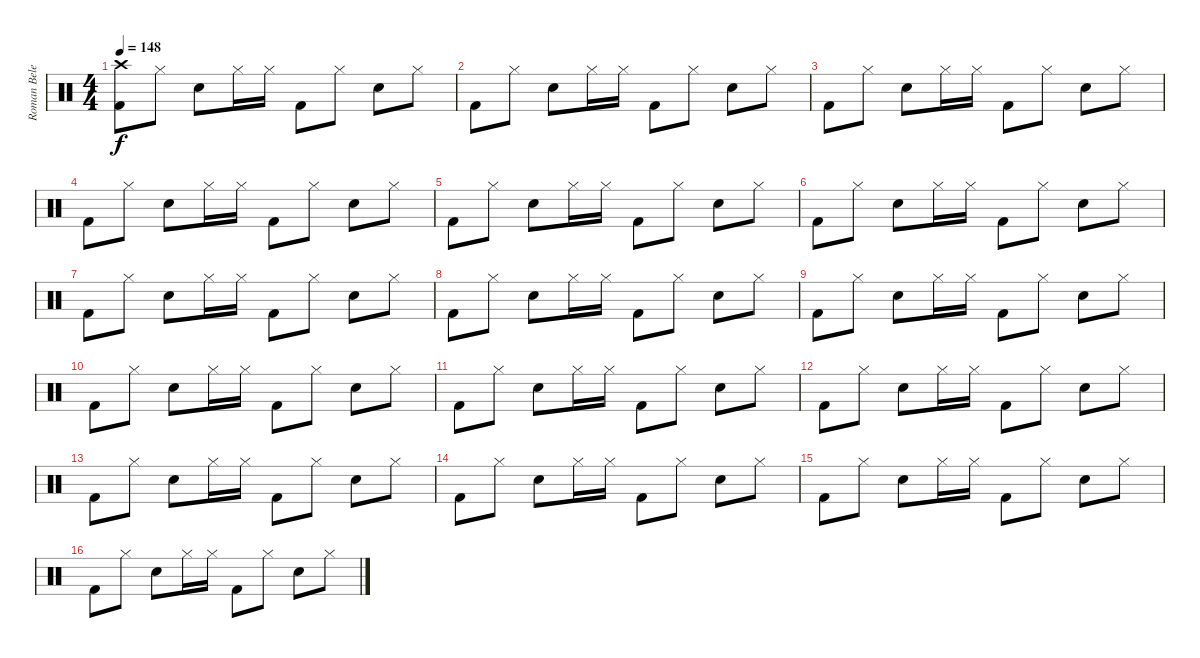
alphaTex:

\track ("Roman Belenkiy" "Roman Bele") {instrument percussion}
\staff {score}
\articulation defaults
\ts (4 4)
\section ("" "")
\tempo 148
\clef neutral
\ks c
("Crash high (hit)" "Kick (hit) 2").8{dy f} "Hi-Hat (closed)".8 "Snare (hit) 2".8 "Hi-Hat (closed)".16 "Hi-Hat (closed)".16 "Kick (hit) 2".8 "Hi-Hat (closed)".8 "Snare (hit) 2".8 "Hi-Hat (closed)".8 |
"Kick (hit) 2".8 "Hi-Hat (closed)".8 "Snare (hit) 2".8 "Hi-Hat (closed)".16 "Hi-Hat (closed)".16 "Kick (hit) 2".8 "Hi-Hat (closed)".8 "Snare (hit) 2".8 "Hi-Hat (closed)".8 |
"Kick (hit) 2".8 "Hi-Hat (closed)".8 "Snare (hit) 2".8 "Hi-Hat (closed)".16 "Hi-Hat (closed)".16 "Kick (hit) 2".8 "Hi-Hat (closed)".8 "Snare (hit) 2".8 "Hi-Hat (closed)".8 |
"Kick (hit) 2".8 "Hi-Hat (closed)".8 "Snare (hit) 2".8 "Hi-Hat (closed)".16 "Hi-Hat (closed)".16 "Kick (hit) 2".8 "Hi-Hat (closed)".8 "Snare (hit) 2".8 "Hi-Hat (closed)".8 |
"Kick (hit) 2".8 "Hi-Hat (closed)".8 "Snare (hit) 2".8 "Hi-Hat (closed)".16 "Hi-Hat (closed)".16 "Kick (hit) 2".8 "Hi-Hat (closed)".8 "Snare (hit) 2".8 "Hi-Hat (closed)".8 |
"Kick (hit) 2".8 "Hi-Hat (closed)".8 "Snare (hit) 2".8 "Hi-Hat (closed)".16 "Hi-Hat (closed)".16 "Kick (hit) 2".8 "Hi-Hat (closed)".8 "Snare (hit) 2".8 "Hi-Hat (closed)".8 |
"Kick (hit) 2".8 "Hi-Hat (closed)".8 "Snare (hit) 2".8 "Hi-Hat (closed)".16 "Hi-Hat (closed)".16 "Kick (hit) 2".8 "Hi-Hat (closed)".8 "Snare (hit) 2".8 "Hi-Hat (closed)".8 |
"Kick (hit) 2".8 "Hi-Hat (closed)".8 "Snare (hit) 2".8 "Hi-Hat (closed)".16 "Hi-Hat (closed)".16 "Kick (hit) 2".8 "Hi-Hat (closed)".8 "Snare (hit) 2".8 "Hi-Hat (closed)".8 |
"Kick (hit) 2".8 "Hi-Hat (closed)".8 "Snare (hit) 2".8 "Hi-Hat (closed)".16 "Hi-Hat (closed)".16 "Kick (hit) 2".8 "Hi-Hat (closed)".8 "Snare (hit) 2".8 "Hi-Hat (closed)".8 |
"Kick (hit) 2".8 "Hi-Hat (closed)".8 "Snare (hit) 2".8 "Hi-Hat (closed)".16 "Hi-Hat (closed)".16 "Kick (hit) 2".8 "Hi-Hat (closed)".8 "Snare (hit) 2".8 "Hi-Hat (closed)".8 |
"Kick (hit) 2".8 "Hi-Hat (closed)".8 "Snare (hit) 2".8 "Hi-Hat (closed)".16 "Hi-Hat (closed)".16 "Kick (hit) 2".8 "Hi-Hat (closed)".8 "Snare (hit) 2".8 "Hi-Hat (closed)".8 |
"Kick (hit) 2".8 "Hi-Hat (closed)".8 "Snare (hit) 2".8 "Hi-Hat (closed)".16 "Hi-Hat (closed)".16 "Kick (hit) 2".8 "Hi-Hat (closed)".8 "Snare (hit) 2".8 "Hi-Hat (closed)".8 |
"Kick (hit) 2".8 "Hi-Hat (closed)".8 "Snare (hit) 2".8 "Hi-Hat (closed)".16 "Hi-Hat (closed)".16 "Kick (hit) 2".8 "Hi-Hat (closed)".8 "Snare (hit) 2".8 "Hi-Hat (closed)".8 |
"Kick (hit) 2".8 "Hi-Hat (closed)".8 "Snare (hit) 2".8 "Hi-Hat (closed)".16 "Hi-Hat (closed)".16 "Kick (hit) 2".8 "Hi-Hat (closed)".8 "Snare (hit) 2".8 "Hi-Hat (closed)".8 |
"Kick (hit) 2".8 "Hi-Hat (closed)".8 "Snare (hit) 2".8 "Hi-Hat (closed)".16 "Hi-Hat (closed)".16 "Kick (hit) 2".8 "Hi-Hat (closed)".8 "Snare (hit) 2".8 "Hi-Hat (closed)".8 |
"Kick (hit) 2".8 "Hi-Hat (closed)".8 "Snare (hit) 2".8 "Hi-Hat (closed)".16 "Hi-Hat (closed)".16 "Kick (hit) 2".8 "Hi-Hat (closed)".8 "Snare (hit) 2".8 "Hi-Hat (closed)".8
